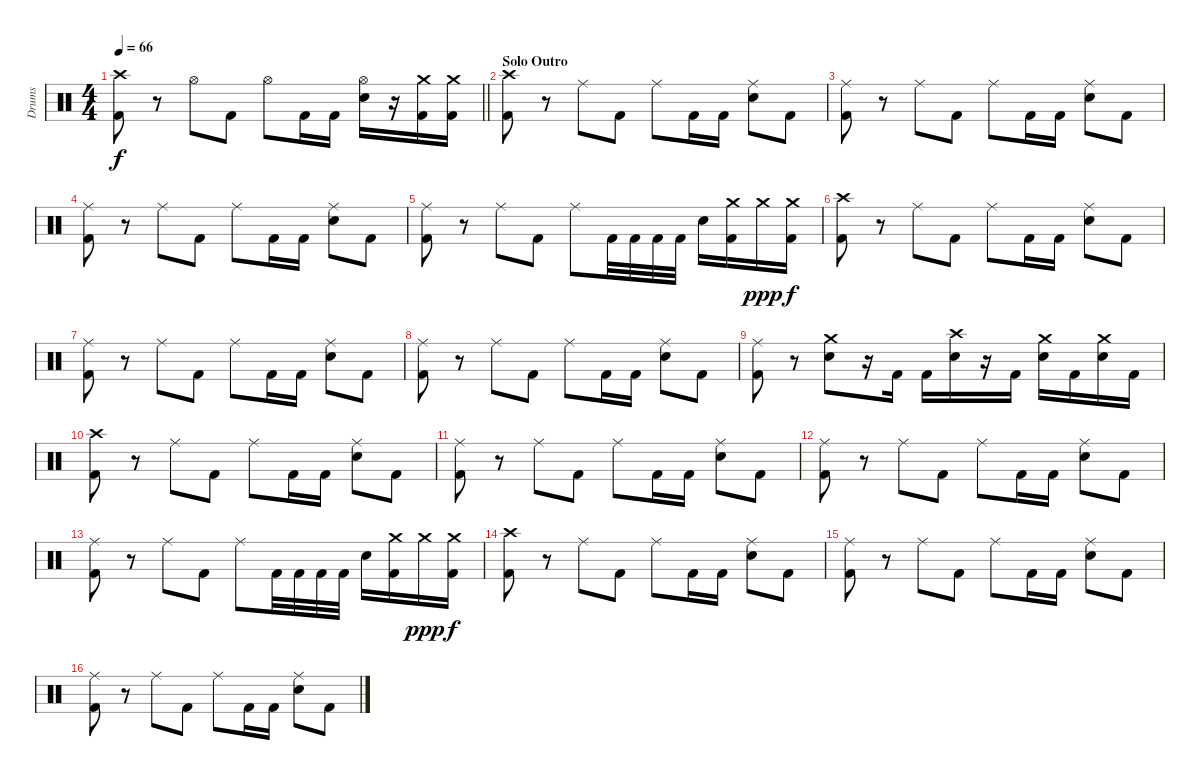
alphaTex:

\track ("Drums" "Drums") {instrument percussion}
\staff {score}
\articulation defaults
\ts (4 4)
\tempo 66
\clef neutral
\barLineRight lightlight
\ks c
("Crash high (hit)" "Kick (hit) 2").8{dy f} r.8 "Hi-Hat (open)".8 "Kick (hit) 2".8 "Hi-Hat (open)".8 "Kick (hit) 2".16 "Kick (hit) 2".16 ("Hi-Hat (open)" "Snare (hit) 2").16 r.16 ("Crash medium (hit)" "Kick (hit) 2").16 ("Crash medium (hit)" "Kick (hit) 2").16 |
\section ("" "Solo Outro")
("Crash high (hit)" "Kick (hit) 2").8 r.8 "Ride (middle)".8 "Kick (hit) 2".8 "Ride (middle)".8 "Kick (hit) 2".16 "Kick (hit) 2".16 ("Ride (middle)" "Snare (hit) 2").8 "Kick (hit) 2".8 |
("Ride (middle)" "Kick (hit) 2").8 r.8 "Ride (middle)".8 "Kick (hit) 2".8 "Ride (middle)".8 "Kick (hit) 2".16 "Kick (hit) 2".16 ("Ride (middle)" "Snare (hit) 2").8 "Kick (hit) 2".8 |
("Ride (middle)" "Kick (hit) 2").8 r.8 "Ride (middle)".8 "Kick (hit) 2".8 "Ride (middle)".8 "Kick (hit) 2".16 "Kick (hit) 2".16 ("Ride (middle)" "Snare (hit) 2").8 "Kick (hit) 2".8 |
("Ride (middle)" "Kick (hit) 2").8 r.8 "Ride (middle)".8 "Kick (hit) 2".8 "Ride (middle)".8 "Kick (hit) 2".32 "Kick (hit) 2".32 "Kick (hit) 2".32 "Kick (hit) 2".32 "Snare (hit) 2".16 ("Crash medium (hit)" "Kick (hit) 2").16 "Crash medium (hit)".16{dy ppp} ("Crash medium (hit)" "Kick (hit) 2").16{dy f} |
("Crash high (hit)" "Kick (hit) 2").8 r.8 "Ride (middle)".8 "Kick (hit) 2".8 "Ride (middle)".8 "Kick (hit) 2".16 "Kick (hit) 2".16 ("Ride (middle)" "Snare (hit) 2").8 "Kick (hit) 2".8 |
("Ride (middle)" "Kick (hit) 2").8 r.8 "Ride (middle)".8 "Kick (hit) 2".8 "Ride (middle)".8 "Kick (hit) 2".16 "Kick (hit) 2".16 ("Ride (middle)" "Snare (hit) 2").8 "Kick (hit) 2".8 |
("Ride (middle)" "Kick (hit) 2").8 r.8 "Ride (middle)".8 "Kick (hit) 2".8 "Ride (middle)".8 "Kick (hit) 2".16 "Kick (hit) 2".16 ("Ride (middle)" "Snare (hit) 2").8 "Kick (hit) 2".8 |
("Ride (middle)" "Kick (hit) 2").8 r.8 ("Crash medium (hit)" "Snare (hit) 2").8 r.16 "Kick (hit) 2".16 "Kick (hit) 2".16 ("Crash high (hit)" "Snare (hit) 2").16 r.16 "Kick (hit) 2".16 ("Crash medium (hit)" "Snare (hit) 2").16 "Kick (hit) 2".16 ("Crash medium (hit)" "Snare (hit) 2").16 "Kick (hit) 2".16 |
("Crash high (hit)" "Kick (hit) 2").8 r.8 "Ride (middle)".8 "Kick (hit) 2".8 "Ride (middle)".8 "Kick (hit) 2".16 "Kick (hit) 2".16 ("Ride (middle)" "Snare (hit) 2").8 "Kick (hit) 2".8 |
("Ride (middle)" "Kick (hit) 2").8 r.8 "Ride (middle)".8 "Kick (hit) 2".8 "Ride (middle)".8 "Kick (hit) 2".16 "Kick (hit) 2".16 ("Ride (middle)" "Snare (hit) 2").8 "Kick (hit) 2".8 |
("Ride (middle)" "Kick (hit) 2").8 r.8 "Ride (middle)".8 "Kick (hit) 2".8 "Ride (middle)".8 "Kick (hit) 2".16 "Kick (hit) 2".16 ("Ride (middle)" "Snare (hit) 2").8 "Kick (hit) 2".8 |
("Ride (middle)" "Kick (hit) 2").8 r.8 "Ride (middle)".8 "Kick (hit) 2".8 "Ride (middle)".8 "Kick (hit) 2".32 "Kick (hit) 2".32 "Kick (hit) 2".32 "Kick (hit) 2".32 "Snare (hit) 2".16 ("Crash medium (hit)" "Kick (hit) 2").16 "Crash medium (hit)".16{dy ppp} ("Crash medium (hit)" "Kick (hit) 2").16{dy f} |
("Crash high (hit)" "Kick (hit) 2").8 r.8 "Ride (middle)".8 "Kick (hit) 2".8 "Ride (middle)".8 "Kick (hit) 2".16 "Kick (hit) 2".16 ("Ride (middle)" "Snare (hit) 2").8 "Kick (hit) 2".8 |
("Ride (middle)" "Kick (hit) 2").8 r.8 "Ride (middle)".8 "Kick (hit) 2".8 "Ride (middle)".8 "Kick (hit) 2".16 "Kick (hit) 2".16 ("Ride (middle)" "Snare (hit) 2").8 "Kick (hit) 2".8 |
("Ride (middle)" "Kick (hit) 2").8 r.8 "Ride (middle)".8 "Kick (hit) 2".8 "Ride (middle)".8 "Kick (hit) 2".16 "Kick (hit) 2".16 ("Ride (middle)" "Snare (hit) 2").8 "Kick (hit) 2".8
